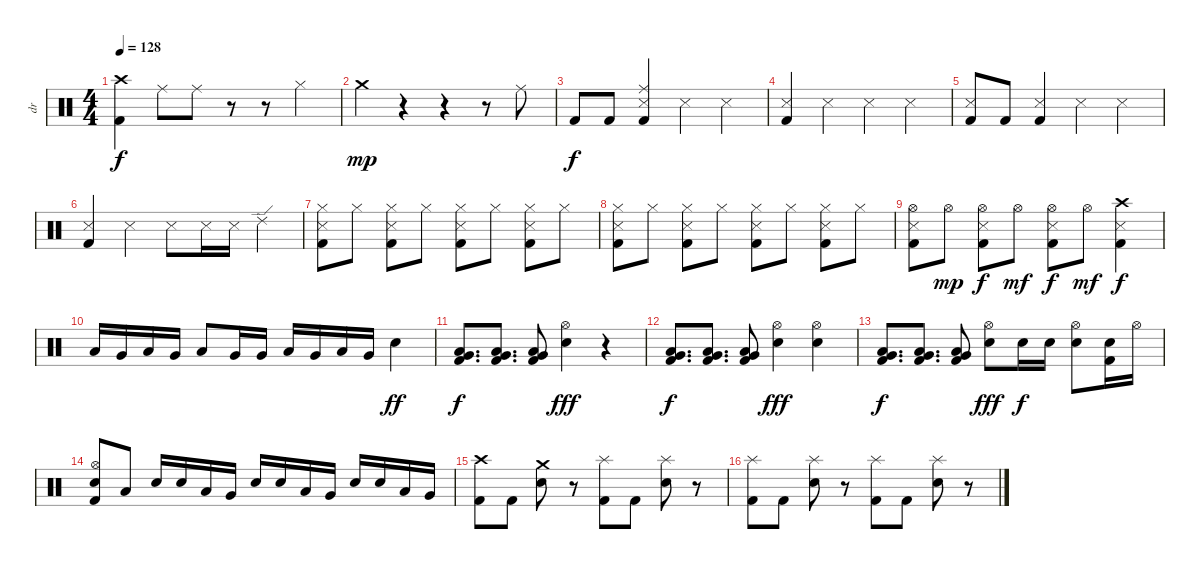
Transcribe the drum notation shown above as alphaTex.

\track ("dr" "dr") {instrument percussion}
\staff {score}
\articulation defaults
\ts (4 4)
\tempo 128
\clef neutral
\ks c
("Crash high (hit)" "Kick (hit) 2").4{dy f} "Ride (middle)".8 "Ride (middle)".8 r.8 r.8 "Hi-Hat (closed)".4 |
"Crash medium (hit)".4{dy mp} r.4 r.4 r.8 "Ride (middle)".8 |
"Kick (hit) 2".8{dy f} "Kick (hit) 2".8 ("Metronome (hit)" "Ride (middle)" "Kick (hit) 2").4 "Metronome (hit)".4 "Metronome (hit)".4 |
("Metronome (hit)" "Kick (hit) 2").4 "Metronome (hit)".4 "Metronome (hit)".4 "Metronome (hit)".4 |
("Metronome (hit)" "Kick (hit) 2").8 "Kick (hit) 2".8 ("Metronome (hit)" "Kick (hit) 2").4 "Metronome (hit)".4 "Metronome (hit)".4 |
("Metronome (hit)" "Kick (hit) 2").4 "Metronome (hit)".4 "Metronome (hit)".8 "Metronome (hit)".16 "Metronome (hit)".16 "Ride (edge) 2".4 |
("Metronome (hit)" "Hi-Hat (closed)" "Kick (hit) 2").8 "Hi-Hat (closed)".8 ("Metronome (hit)" "Hi-Hat (closed)" "Kick (hit) 2").8 "Hi-Hat (closed)".8 ("Metronome (hit)" "Hi-Hat (closed)" "Kick (hit) 2").8 "Hi-Hat (closed)".8 ("Metronome (hit)" "Hi-Hat (closed)" "Kick (hit) 2").8 "Hi-Hat (closed)".8 |
("Metronome (hit)" "Hi-Hat (closed)" "Kick (hit) 2").8 "Hi-Hat (closed)".8 ("Metronome (hit)" "Hi-Hat (closed)" "Kick (hit) 2").8 "Hi-Hat (closed)".8 ("Metronome (hit)" "Hi-Hat (closed)" "Kick (hit) 2").8 "Hi-Hat (closed)".8 ("Metronome (hit)" "Hi-Hat (closed)" "Kick (hit) 2").8 "Hi-Hat (closed)".8 |
("Metronome (hit)" "Hi-Hat (open)" "Kick (hit) 2").8 "Hi-Hat (open)".8{dy mp} ("Metronome (hit)" "Hi-Hat (open)" "Kick (hit) 2").8{dy f} "Hi-Hat (open)".8{dy mf} ("Metronome (hit)" "Hi-Hat (open)" "Kick (hit) 2").8{dy f} "Hi-Hat (open)".8{dy mf} ("Metronome (hit)" "Crash high (hit)" "Kick (hit) 2").4{dy f} |
"Low Tom (hit)".16 "Very Low Tom (hit)".16 "Low Tom (hit)".16 "Very Low Tom (hit)".16 "Low Tom (hit)".8 "Very Low Tom (hit)".16 "Very Low Tom (hit)".16 "Low Tom (hit)".16 "Very Low Tom (hit)".16 "Low Tom (hit)".16 "Very Low Tom (hit)".16 "Electric Snare (hit)".4{dy ff} |
("Low Tom (hit)" "Very Low Tom (hit)" "Kick (hit) 2").8{d dy f} ("Low Tom (hit)" "Very Low Tom (hit)" "Kick (hit) 2").8{d} ("Low Tom (hit)" "Very Low Tom (hit)" "Kick (hit) 2").8 ("Hi-Hat (open)" "Electric Snare (hit)").4{dy fff} r.4 |
("Low Tom (hit)" "Very Low Tom (hit)" "Kick (hit) 2").8{d dy f} ("Low Tom (hit)" "Very Low Tom (hit)" "Kick (hit) 2").8{d} ("Low Tom (hit)" "Very Low Tom (hit)" "Kick (hit) 2").8 ("Hi-Hat (open)" "Electric Snare (hit)").4{dy fff} ("Hi-Hat (open)" "Electric Snare (hit)").4 |
("Low Tom (hit)" "Very Low Tom (hit)" "Kick (hit) 2").8{d dy f} ("Low Tom (hit)" "Very Low Tom (hit)" "Kick (hit) 2").8{d} ("Low Tom (hit)" "Very Low Tom (hit)" "Kick (hit) 2").8 ("Hi-Hat (open)" "Electric Snare (hit)").8{dy fff} "Electric Snare (hit)".16{dy f} "Electric Snare (hit)".16 ("Hi-Hat (open)" "Electric Snare (hit)").8 ("Electric Snare (hit)" "Kick (hit) 2").16 "Hi-Hat (open)".16 |
("Hi-Hat (open)" "Electric Snare (hit)" "Kick (hit) 2").8 "Low Tom (hit)".8 "Electric Snare (hit)".16 "Electric Snare (hit)".16 "Low Tom (hit)".16 "Very Low Tom (hit)".16 "Electric Snare (hit)".16 "Electric Snare (hit)".16 "Low Tom (hit)".16 "Very Low Tom (hit)".16 "Electric Snare (hit)".16 "Electric Snare (hit)".16 "Low Tom (hit)".16 "Very Low Tom (hit)".16 |
("Crash high (hit)" "Kick (hit) 2").8 "Kick (hit) 2".8 ("Crash medium (hit)" "Electric Snare (hit)").8 r.8 ("Splash (hit)" "Kick (hit) 2").8 "Kick (hit) 2".8 ("Splash (hit)" "Electric Snare (hit)").8 r.8 |
("Splash (hit)" "Kick (hit) 2").8 "Kick (hit) 2".8 ("Splash (hit)" "Electric Snare (hit)").8 r.8 ("Splash (hit)" "Kick (hit) 2").8 "Kick (hit) 2".8 ("Splash (hit)" "Electric Snare (hit)").8 r.8
